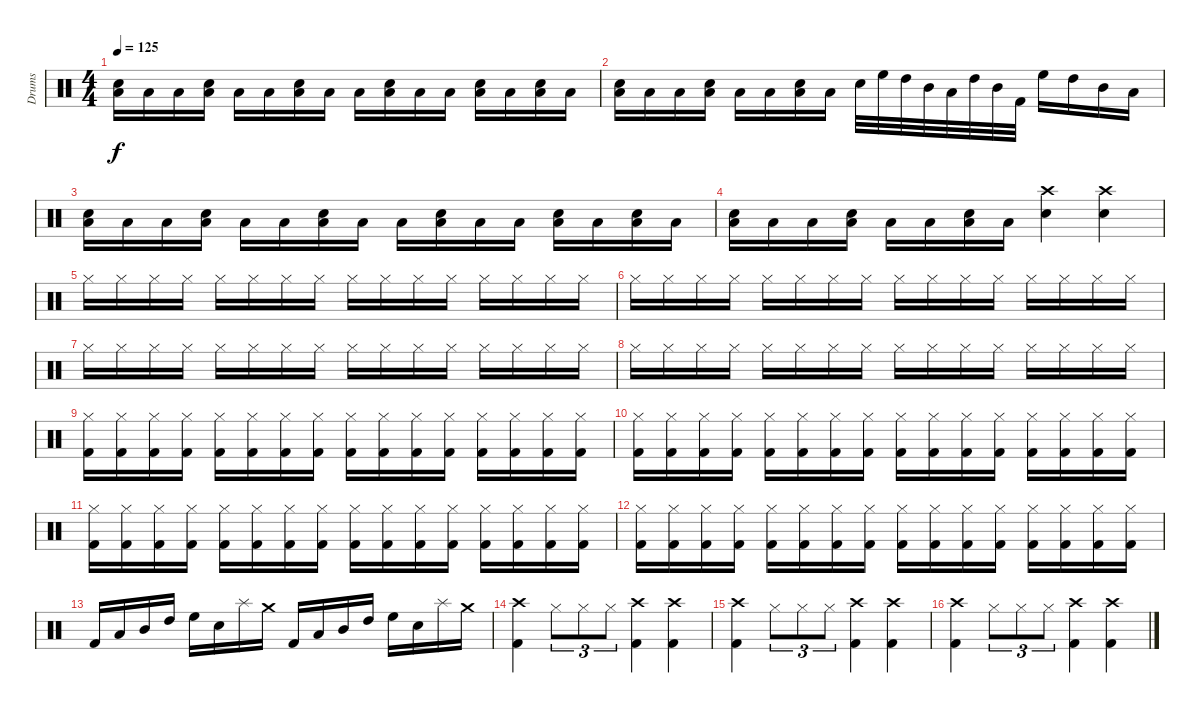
\track ("Drums" "Drums") {instrument percussion}
\staff {score}
\articulation defaults
\ts (4 4)
\tempo 125
\clef neutral
\ks c
("Low Floor Tom (hit)" "Electric Snare (hit)").16{dy f} "Low Floor Tom (hit)".16 "Low Floor Tom (hit)".16 ("Low Floor Tom (hit)" "Electric Snare (hit)").16 "Low Floor Tom (hit)".16 "Low Floor Tom (hit)".16 ("Low Floor Tom (hit)" "Electric Snare (hit)").16 "Low Floor Tom (hit)".16 "Low Floor Tom (hit)".16 ("Low Floor Tom (hit)" "Electric Snare (hit)").16 "Low Floor Tom (hit)".16 "Low Floor Tom (hit)".16 ("Low Floor Tom (hit)" "Electric Snare (hit)").16 "Low Floor Tom (hit)".16 ("Low Floor Tom (hit)" "Electric Snare (hit)").16 "Low Floor Tom (hit)".16 |
("Low Floor Tom (hit)" "Electric Snare (hit)").16 "Low Floor Tom (hit)".16 "Low Floor Tom (hit)".16 ("Low Floor Tom (hit)" "Electric Snare (hit)").16 "Low Floor Tom (hit)".16 "Low Floor Tom (hit)".16 ("Low Floor Tom (hit)" "Electric Snare (hit)").16 "Low Floor Tom (hit)".16 "Electric Snare (hit)".32 "High Floor Tom (hit)".32 "High Tom (hit)".32 "Mid Tom (hit)".32 "Low Tom (hit)".32 "High Tom (hit)".32 "Mid Tom (hit)".32 "Kick (hit) 2".32 "High Floor Tom (hit)".16 "High Tom (hit)".16 "Mid Tom (hit)".16 "Low Tom (hit)".16 |
("Low Floor Tom (hit)" "Electric Snare (hit)").16 "Low Floor Tom (hit)".16 "Low Floor Tom (hit)".16 ("Low Floor Tom (hit)" "Electric Snare (hit)").16 "Low Floor Tom (hit)".16 "Low Floor Tom (hit)".16 ("Low Floor Tom (hit)" "Electric Snare (hit)").16 "Low Floor Tom (hit)".16 "Low Floor Tom (hit)".16 ("Low Floor Tom (hit)" "Electric Snare (hit)").16 "Low Floor Tom (hit)".16 "Low Floor Tom (hit)".16 ("Low Floor Tom (hit)" "Electric Snare (hit)").16 "Low Floor Tom (hit)".16 ("Low Floor Tom (hit)" "Electric Snare (hit)").16 "Low Floor Tom (hit)".16 |
("Low Floor Tom (hit)" "Electric Snare (hit)").16 "Low Floor Tom (hit)".16 "Low Floor Tom (hit)".16 ("Low Floor Tom (hit)" "Electric Snare (hit)").16 "Low Floor Tom (hit)".16 "Low Floor Tom (hit)".16 ("Low Floor Tom (hit)" "Electric Snare (hit)").16 "Low Floor Tom (hit)".16 ("Crash high (hit)" "Electric Snare (hit)").4 ("Crash high (hit)" "Electric Snare (hit)").4 |
"Hi-Hat (closed)".16 "Hi-Hat (closed)".16 "Hi-Hat (closed)".16 "Hi-Hat (closed)".16 "Hi-Hat (closed)".16 "Hi-Hat (closed)".16 "Hi-Hat (closed)".16 "Hi-Hat (closed)".16 "Hi-Hat (closed)".16 "Hi-Hat (closed)".16 "Hi-Hat (closed)".16 "Hi-Hat (closed)".16 "Hi-Hat (closed)".16 "Hi-Hat (closed)".16 "Hi-Hat (closed)".16 "Hi-Hat (closed)".16 |
"Hi-Hat (closed)".16 "Hi-Hat (closed)".16 "Hi-Hat (closed)".16 "Hi-Hat (closed)".16 "Hi-Hat (closed)".16 "Hi-Hat (closed)".16 "Hi-Hat (closed)".16 "Hi-Hat (closed)".16 "Hi-Hat (closed)".16 "Hi-Hat (closed)".16 "Hi-Hat (closed)".16 "Hi-Hat (closed)".16 "Hi-Hat (closed)".16 "Hi-Hat (closed)".16 "Hi-Hat (closed)".16 "Hi-Hat (closed)".16 |
"Hi-Hat (closed)".16 "Hi-Hat (closed)".16 "Hi-Hat (closed)".16 "Hi-Hat (closed)".16 "Hi-Hat (closed)".16 "Hi-Hat (closed)".16 "Hi-Hat (closed)".16 "Hi-Hat (closed)".16 "Hi-Hat (closed)".16 "Hi-Hat (closed)".16 "Hi-Hat (closed)".16 "Hi-Hat (closed)".16 "Hi-Hat (closed)".16 "Hi-Hat (closed)".16 "Hi-Hat (closed)".16 "Hi-Hat (closed)".16 |
"Hi-Hat (closed)".16 "Hi-Hat (closed)".16 "Hi-Hat (closed)".16 "Hi-Hat (closed)".16 "Hi-Hat (closed)".16 "Hi-Hat (closed)".16 "Hi-Hat (closed)".16 "Hi-Hat (closed)".16 "Hi-Hat (closed)".16 "Hi-Hat (closed)".16 "Hi-Hat (closed)".16 "Hi-Hat (closed)".16 "Hi-Hat (closed)".16 "Hi-Hat (closed)".16 "Hi-Hat (closed)".16 "Hi-Hat (closed)".16 |
("Hi-Hat (closed)" "Kick (hit) 2").16 ("Hi-Hat (closed)" "Kick (hit) 2").16 ("Hi-Hat (closed)" "Kick (hit) 2").16 ("Hi-Hat (closed)" "Kick (hit) 2").16 ("Hi-Hat (closed)" "Kick (hit) 2").16 ("Hi-Hat (closed)" "Kick (hit) 2").16 ("Hi-Hat (closed)" "Kick (hit) 2").16 ("Hi-Hat (closed)" "Kick (hit) 2").16 ("Hi-Hat (closed)" "Kick (hit) 2").16 ("Hi-Hat (closed)" "Kick (hit) 2").16 ("Hi-Hat (closed)" "Kick (hit) 2").16 ("Hi-Hat (closed)" "Kick (hit) 2").16 ("Hi-Hat (closed)" "Kick (hit) 2").16 ("Hi-Hat (closed)" "Kick (hit) 2").16 ("Hi-Hat (closed)" "Kick (hit) 2").16 ("Hi-Hat (closed)" "Kick (hit) 2").16 |
("Hi-Hat (closed)" "Kick (hit) 2").16 ("Hi-Hat (closed)" "Kick (hit) 2").16 ("Hi-Hat (closed)" "Kick (hit) 2").16 ("Hi-Hat (closed)" "Kick (hit) 2").16 ("Hi-Hat (closed)" "Kick (hit) 2").16 ("Hi-Hat (closed)" "Kick (hit) 2").16 ("Hi-Hat (closed)" "Kick (hit) 2").16 ("Hi-Hat (closed)" "Kick (hit) 2").16 ("Hi-Hat (closed)" "Kick (hit) 2").16 ("Hi-Hat (closed)" "Kick (hit) 2").16 ("Hi-Hat (closed)" "Kick (hit) 2").16 ("Hi-Hat (closed)" "Kick (hit) 2").16 ("Hi-Hat (closed)" "Kick (hit) 2").16 ("Hi-Hat (closed)" "Kick (hit) 2").16 ("Hi-Hat (closed)" "Kick (hit) 2").16 ("Hi-Hat (closed)" "Kick (hit) 2").16 |
("Hi-Hat (closed)" "Kick (hit) 2").16 ("Hi-Hat (closed)" "Kick (hit) 2").16 ("Hi-Hat (closed)" "Kick (hit) 2").16 ("Hi-Hat (closed)" "Kick (hit) 2").16 ("Hi-Hat (closed)" "Kick (hit) 2").16 ("Hi-Hat (closed)" "Kick (hit) 2").16 ("Hi-Hat (closed)" "Kick (hit) 2").16 ("Hi-Hat (closed)" "Kick (hit) 2").16 ("Hi-Hat (closed)" "Kick (hit) 2").16 ("Hi-Hat (closed)" "Kick (hit) 2").16 ("Hi-Hat (closed)" "Kick (hit) 2").16 ("Hi-Hat (closed)" "Kick (hit) 2").16 ("Hi-Hat (closed)" "Kick (hit) 2").16 ("Hi-Hat (closed)" "Kick (hit) 2").16 ("Hi-Hat (closed)" "Kick (hit) 2").16 ("Hi-Hat (closed)" "Kick (hit) 2").16 |
("Hi-Hat (closed)" "Kick (hit) 2").16 ("Hi-Hat (closed)" "Kick (hit) 2").16 ("Hi-Hat (closed)" "Kick (hit) 2").16 ("Hi-Hat (closed)" "Kick (hit) 2").16 ("Hi-Hat (closed)" "Kick (hit) 2").16 ("Hi-Hat (closed)" "Kick (hit) 2").16 ("Hi-Hat (closed)" "Kick (hit) 2").16 ("Hi-Hat (closed)" "Kick (hit) 2").16 ("Hi-Hat (closed)" "Kick (hit) 2").16 ("Hi-Hat (closed)" "Kick (hit) 2").16 ("Hi-Hat (closed)" "Kick (hit) 2").16 ("Hi-Hat (closed)" "Kick (hit) 2").16 ("Hi-Hat (closed)" "Kick (hit) 2").16 ("Hi-Hat (closed)" "Kick (hit) 2").16 ("Hi-Hat (closed)" "Kick (hit) 2").16 ("Hi-Hat (closed)" "Kick (hit) 2").16 |
"Kick (hit) 2".16 "Low Tom (hit)".16 "Mid Tom (hit)".16 "High Tom (hit)".16 "High Floor Tom (hit)".16 "Electric Snare (hit)".16 "Splash (hit)".16 "Crash medium (hit)".16 "Kick (hit) 2".16 "Low Tom (hit)".16 "Mid Tom (hit)".16 "High Tom (hit)".16 "High Floor Tom (hit)".16 "Electric Snare (hit)".16 "Splash (hit)".16 "Crash medium (hit)".16 |
("Crash high (hit)" "Kick (hit) 2").4 "Hi-Hat (closed)".8{tu (3 2)} "Hi-Hat (closed)".8{tu (3 2)} "Hi-Hat (closed)".8{tu (3 2)} ("Crash high (hit)" "Kick (hit) 2").4 ("Crash high (hit)" "Kick (hit) 2").4 |
("Crash high (hit)" "Kick (hit) 2").4 "Hi-Hat (closed)".8{tu (3 2)} "Hi-Hat (closed)".8{tu (3 2)} "Hi-Hat (closed)".8{tu (3 2)} ("Crash high (hit)" "Kick (hit) 2").4 ("Crash high (hit)" "Kick (hit) 2").4 |
("Crash high (hit)" "Kick (hit) 2").4 "Hi-Hat (closed)".8{tu (3 2)} "Hi-Hat (closed)".8{tu (3 2)} "Hi-Hat (closed)".8{tu (3 2)} ("Crash high (hit)" "Kick (hit) 2").4 ("Crash high (hit)" "Kick (hit) 2").4
